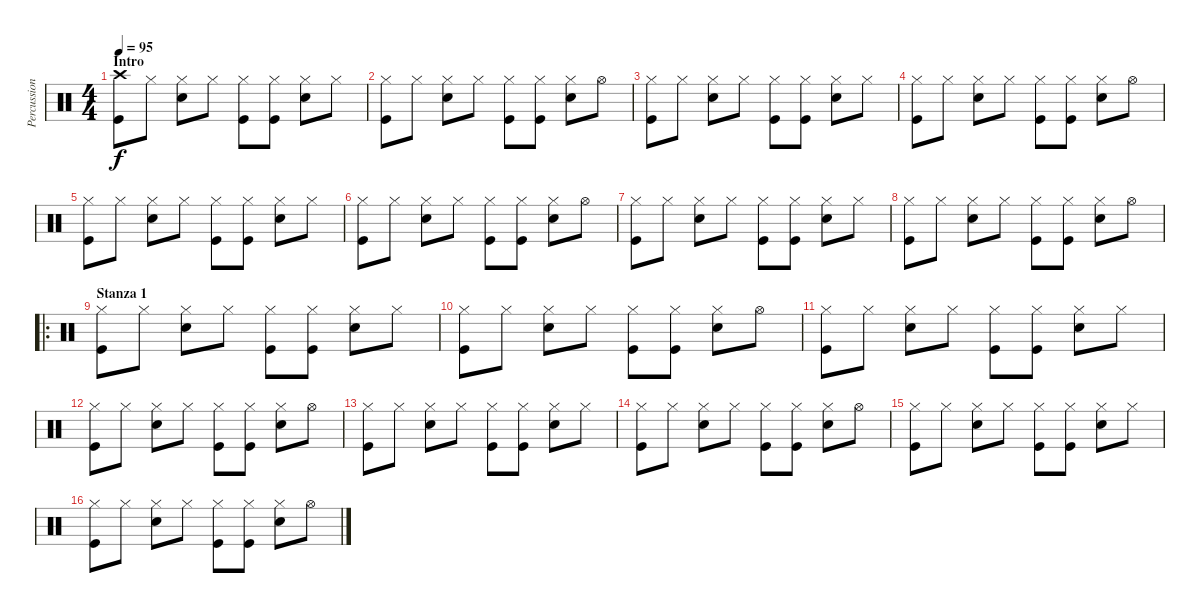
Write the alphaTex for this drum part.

\track ("Percussion" "Percussion") {instrument percussion}
\staff {score}
\articulation defaults
\ts (4 4)
\section ("" "Intro")
\tempo 95
\clef neutral
\ks c
("Crash high (hit)" "Kick (hit)").8{dy f} "Hi-Hat (closed)".8 ("Hi-Hat (closed)" "Electric Snare (hit)").8 "Hi-Hat (closed)".8 ("Hi-Hat (closed)" "Kick (hit)").8 ("Hi-Hat (closed)" "Kick (hit)").8 ("Hi-Hat (closed)" "Electric Snare (hit)").8 "Hi-Hat (closed)".8 |
("Hi-Hat (closed)" "Kick (hit)").8 "Hi-Hat (closed)".8 ("Hi-Hat (closed)" "Electric Snare (hit)").8 "Hi-Hat (closed)".8 ("Hi-Hat (closed)" "Kick (hit)").8 ("Hi-Hat (closed)" "Kick (hit)").8 ("Hi-Hat (closed)" "Electric Snare (hit)").8 "Hi-Hat (open)".8 |
("Hi-Hat (closed)" "Kick (hit)").8 "Hi-Hat (closed)".8 ("Hi-Hat (closed)" "Electric Snare (hit)").8 "Hi-Hat (closed)".8 ("Hi-Hat (closed)" "Kick (hit)").8 ("Hi-Hat (closed)" "Kick (hit)").8 ("Hi-Hat (closed)" "Electric Snare (hit)").8 "Hi-Hat (closed)".8 |
("Hi-Hat (closed)" "Kick (hit)").8 "Hi-Hat (closed)".8 ("Hi-Hat (closed)" "Electric Snare (hit)").8 "Hi-Hat (closed)".8 ("Hi-Hat (closed)" "Kick (hit)").8 ("Hi-Hat (closed)" "Kick (hit)").8 ("Hi-Hat (closed)" "Electric Snare (hit)").8 "Hi-Hat (open)".8 |
("Hi-Hat (closed)" "Kick (hit)").8 "Hi-Hat (closed)".8 ("Hi-Hat (closed)" "Electric Snare (hit)").8 "Hi-Hat (closed)".8 ("Hi-Hat (closed)" "Kick (hit)").8 ("Hi-Hat (closed)" "Kick (hit)").8 ("Hi-Hat (closed)" "Electric Snare (hit)").8 "Hi-Hat (closed)".8 |
("Hi-Hat (closed)" "Kick (hit)").8 "Hi-Hat (closed)".8 ("Hi-Hat (closed)" "Electric Snare (hit)").8 "Hi-Hat (closed)".8 ("Hi-Hat (closed)" "Kick (hit)").8 ("Hi-Hat (closed)" "Kick (hit)").8 ("Hi-Hat (closed)" "Electric Snare (hit)").8 "Hi-Hat (open)".8 |
("Hi-Hat (closed)" "Kick (hit)").8 "Hi-Hat (closed)".8 ("Hi-Hat (closed)" "Electric Snare (hit)").8 "Hi-Hat (closed)".8 ("Hi-Hat (closed)" "Kick (hit)").8 ("Hi-Hat (closed)" "Kick (hit)").8 ("Hi-Hat (closed)" "Electric Snare (hit)").8 "Hi-Hat (closed)".8 |
("Hi-Hat (closed)" "Kick (hit)").8 "Hi-Hat (closed)".8 ("Hi-Hat (closed)" "Electric Snare (hit)").8 "Hi-Hat (closed)".8 ("Hi-Hat (closed)" "Kick (hit)").8 ("Hi-Hat (closed)" "Kick (hit)").8 ("Hi-Hat (closed)" "Electric Snare (hit)").8 "Hi-Hat (open)".8 |
\ro
\section ("" "Stanza 1")
("Hi-Hat (closed)" "Kick (hit)").8 "Hi-Hat (closed)".8 ("Hi-Hat (closed)" "Electric Snare (hit)").8 "Hi-Hat (closed)".8 ("Hi-Hat (closed)" "Kick (hit)").8 ("Hi-Hat (closed)" "Kick (hit)").8 ("Hi-Hat (closed)" "Electric Snare (hit)").8 "Hi-Hat (closed)".8 |
("Hi-Hat (closed)" "Kick (hit)").8 "Hi-Hat (closed)".8 ("Hi-Hat (closed)" "Electric Snare (hit)").8 "Hi-Hat (closed)".8 ("Hi-Hat (closed)" "Kick (hit)").8 ("Hi-Hat (closed)" "Kick (hit)").8 ("Hi-Hat (closed)" "Electric Snare (hit)").8 "Hi-Hat (open)".8 |
("Hi-Hat (closed)" "Kick (hit)").8 "Hi-Hat (closed)".8 ("Hi-Hat (closed)" "Electric Snare (hit)").8 "Hi-Hat (closed)".8 ("Hi-Hat (closed)" "Kick (hit)").8 ("Hi-Hat (closed)" "Kick (hit)").8 ("Hi-Hat (closed)" "Electric Snare (hit)").8 "Hi-Hat (closed)".8 |
("Hi-Hat (closed)" "Kick (hit)").8 "Hi-Hat (closed)".8 ("Hi-Hat (closed)" "Electric Snare (hit)").8 "Hi-Hat (closed)".8 ("Hi-Hat (closed)" "Kick (hit)").8 ("Hi-Hat (closed)" "Kick (hit)").8 ("Hi-Hat (closed)" "Electric Snare (hit)").8 "Hi-Hat (open)".8 |
("Hi-Hat (closed)" "Kick (hit)").8 "Hi-Hat (closed)".8 ("Hi-Hat (closed)" "Electric Snare (hit)").8 "Hi-Hat (closed)".8 ("Hi-Hat (closed)" "Kick (hit)").8 ("Hi-Hat (closed)" "Kick (hit)").8 ("Hi-Hat (closed)" "Electric Snare (hit)").8 "Hi-Hat (closed)".8 |
("Hi-Hat (closed)" "Kick (hit)").8 "Hi-Hat (closed)".8 ("Hi-Hat (closed)" "Electric Snare (hit)").8 "Hi-Hat (closed)".8 ("Hi-Hat (closed)" "Kick (hit)").8 ("Hi-Hat (closed)" "Kick (hit)").8 ("Hi-Hat (closed)" "Electric Snare (hit)").8 "Hi-Hat (open)".8 |
("Hi-Hat (closed)" "Kick (hit)").8 "Hi-Hat (closed)".8 ("Hi-Hat (closed)" "Electric Snare (hit)").8 "Hi-Hat (closed)".8 ("Hi-Hat (closed)" "Kick (hit)").8 ("Hi-Hat (closed)" "Kick (hit)").8 ("Hi-Hat (closed)" "Electric Snare (hit)").8 "Hi-Hat (closed)".8 |
("Hi-Hat (closed)" "Kick (hit)").8 "Hi-Hat (closed)".8 ("Hi-Hat (closed)" "Electric Snare (hit)").8 "Hi-Hat (closed)".8 ("Hi-Hat (closed)" "Kick (hit)").8 ("Hi-Hat (closed)" "Kick (hit)").8 ("Hi-Hat (closed)" "Electric Snare (hit)").8 "Hi-Hat (open)".8
